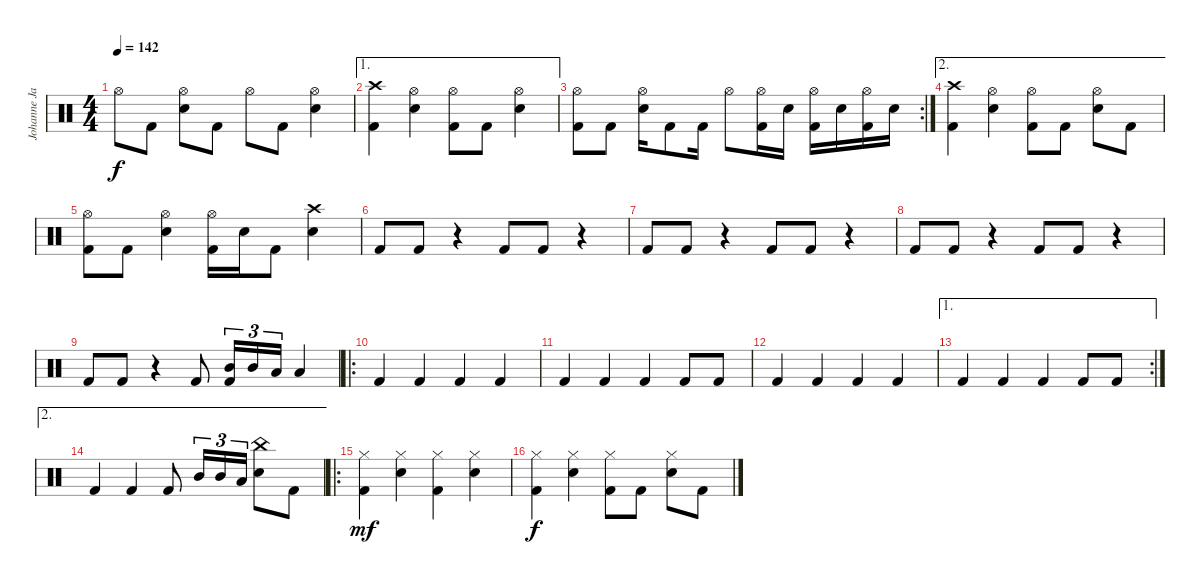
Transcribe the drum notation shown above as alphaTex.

\track ("Johanne James" "Johanne Ja") {instrument percussion}
\staff {score}
\articulation defaults
\ts (4 4)
\tempo 142
\clef neutral
\ks c "Hi-Hat (open)".8{dy f} "Kick (hit) 2".8
("Hi-Hat (open)" "Snare (hit) 2").8 "Kick (hit) 2".8 "Hi-Hat (open)".8 "Kick (hit) 2".8 ("Hi-Hat (open)" "Snare (hit) 2").4 |
\ae 1
("Crash high (hit)" "Kick (hit) 2").4 ("Hi-Hat (open)" "Snare (hit) 2").4 ("Hi-Hat (open)" "Kick (hit) 2").8 "Kick (hit) 2".8 ("Hi-Hat (open)" "Snare (hit) 2").4 |
\rc 2
("Hi-Hat (open)" "Kick (hit) 2").8 "Kick (hit) 2".8 ("Hi-Hat (open)" "Snare (hit) 2").16 "Kick (hit) 2".8 "Kick (hit) 2".16 "Hi-Hat (open)".8 ("Hi-Hat (open)" "Kick (hit) 2").16 "Snare (hit) 2".16 ("Hi-Hat (open)" "Kick (hit) 2").16 "Snare (hit) 2".16 ("Hi-Hat (open)" "Kick (hit) 2").16 "Snare (hit) 2".16 |
\ae 2
("Crash high (hit)" "Kick (hit) 2").4 ("Hi-Hat (open)" "Snare (hit) 2").4 ("Hi-Hat (open)" "Kick (hit) 2").8 "Kick (hit) 2".8 ("Hi-Hat (open)" "Snare (hit) 2").8 "Kick (hit) 2".8 |
("Hi-Hat (open)" "Kick (hit) 2").8 "Kick (hit) 2".8 ("Hi-Hat (open)" "Snare (hit) 2").4 ("Hi-Hat (open)" "Kick (hit) 2").16 "Snare (hit) 2".16 "Kick (hit) 2".8 ("Crash high (hit)" "Snare (hit) 2").4 |
"Kick (hit) 2".8 "Kick (hit) 2".8 r.4 "Kick (hit) 2".8 "Kick (hit) 2".8 r.4 |
"Kick (hit) 2".8 "Kick (hit) 2".8 r.4 "Kick (hit) 2".8 "Kick (hit) 2".8 r.4 |
"Kick (hit) 2".8 "Kick (hit) 2".8 r.4 "Kick (hit) 2".8 "Kick (hit) 2".8 r.4 |
"Kick (hit) 2".8 "Kick (hit) 2".8 r.4 "Kick (hit) 2".8 ("Mid Tom (hit)" "Kick (hit) 2").16{tu (3 2)} "Mid Tom (hit)".16{tu (3 2)} "Low Tom (hit)".16{tu (3 2)} "Low Tom (hit)".4 |
\ro "Kick (hit) 2".4 "Kick (hit) 2".4 "Kick (hit) 2".4 "Kick (hit) 2".4
|
"Kick (hit) 2".4 "Kick (hit) 2".4 "Kick (hit) 2".4 "Kick (hit) 2".8 "Kick (hit) 2".8 |
"Kick (hit) 2".4 "Kick (hit) 2".4 "Kick (hit) 2".4 "Kick (hit) 2".4 |
\ae 1
\rc 2 "Kick (hit) 2".4 "Kick (hit) 2".4 "Kick (hit) 2".4 "Kick (hit) 2".8 "Kick (hit) 2".8
|
\ae 2 "Kick (hit) 2".4 "Kick (hit) 2".4 "Kick (hit) 2".8 "Mid Tom (hit)".16{tu (3 2)} "Mid Tom (hit)".16{tu (3 2)} "Low Tom (hit)".16{tu (3 2)}
("China (hit)" "Snare (hit) 2").8 "Kick (hit) 2".8 |
\ro
("Hi-Hat (closed)" "Kick (hit) 2").4{dy mf} ("Hi-Hat (closed)" "Snare (hit) 2").4 ("Hi-Hat (closed)" "Kick (hit) 2").4 ("Hi-Hat (closed)" "Snare (hit) 2").4 |
("Hi-Hat (closed)" "Kick (hit) 2").4{dy f} ("Hi-Hat (closed)" "Snare (hit) 2").4 ("Hi-Hat (closed)" "Kick (hit) 2").8 "Kick (hit) 2".8 ("Hi-Hat (closed)" "Snare (hit) 2").8 "Kick (hit) 2".8
